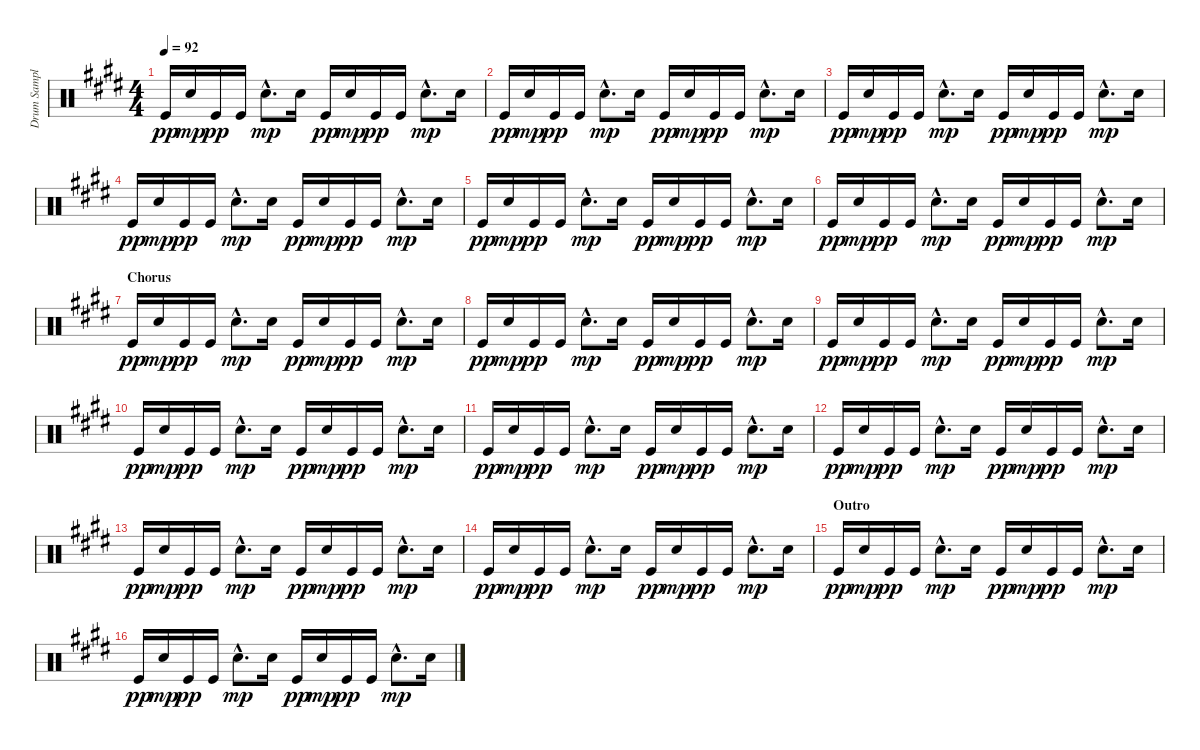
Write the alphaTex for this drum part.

\track ("Drum Sampler" "Drum Sampl") {instrument percussion}
\staff {score}
\articulation defaults
\ts (4 4)
\tempo 92
\clef neutral
\ks e "Kick (hit)".16{dy pp} "Electric Snare (hit)".16{dy mp} "Kick (hit)".16{dy pp} "Kick (hit)".16 "Electric Snare (hit)"{hac}.8{d dy mp} "Electric Snare (hit)".16 "Kick (hit)".16{dy pp} "Electric Snare (hit)".16{dy mp} "Kick (hit)".16{dy pp} "Kick (hit)".16 "Electric Snare (hit)"{hac}.8{d dy mp} "Electric Snare (hit)".16
|
"Kick (hit)".16{dy pp} "Electric Snare (hit)".16{dy mp} "Kick (hit)".16{dy pp} "Kick (hit)".16 "Electric Snare (hit)"{hac}.8{d dy mp} "Electric Snare (hit)".16 "Kick (hit)".16{dy pp} "Electric Snare (hit)".16{dy mp} "Kick (hit)".16{dy pp} "Kick (hit)".16 "Electric Snare (hit)"{hac}.8{d dy mp} "Electric Snare (hit)".16 |
"Kick (hit)".16{dy pp} "Electric Snare (hit)".16{dy mp} "Kick (hit)".16{dy pp} "Kick (hit)".16 "Electric Snare (hit)"{hac}.8{d dy mp} "Electric Snare (hit)".16 "Kick (hit)".16{dy pp} "Electric Snare (hit)".16{dy mp} "Kick (hit)".16{dy pp} "Kick (hit)".16 "Electric Snare (hit)"{hac}.8{d dy mp} "Electric Snare (hit)".16 |
"Kick (hit)".16{dy pp} "Electric Snare (hit)".16{dy mp} "Kick (hit)".16{dy pp} "Kick (hit)".16 "Electric Snare (hit)"{hac}.8{d dy mp} "Electric Snare (hit)".16 "Kick (hit)".16{dy pp} "Electric Snare (hit)".16{dy mp} "Kick (hit)".16{dy pp} "Kick (hit)".16 "Electric Snare (hit)"{hac}.8{d dy mp} "Electric Snare (hit)".16 |
"Kick (hit)".16{dy pp} "Electric Snare (hit)".16{dy mp} "Kick (hit)".16{dy pp} "Kick (hit)".16 "Electric Snare (hit)"{hac}.8{d dy mp} "Electric Snare (hit)".16 "Kick (hit)".16{dy pp} "Electric Snare (hit)".16{dy mp} "Kick (hit)".16{dy pp} "Kick (hit)".16 "Electric Snare (hit)"{hac}.8{d dy mp} "Electric Snare (hit)".16 |
"Kick (hit)".16{dy pp} "Electric Snare (hit)".16{dy mp} "Kick (hit)".16{dy pp} "Kick (hit)".16 "Electric Snare (hit)"{hac}.8{d dy mp} "Electric Snare (hit)".16 "Kick (hit)".16{dy pp} "Electric Snare (hit)".16{dy mp} "Kick (hit)".16{dy pp} "Kick (hit)".16 "Electric Snare (hit)"{hac}.8{d dy mp} "Electric Snare (hit)".16 |
\section ("" "Chorus")
"Kick (hit)".16{dy pp} "Electric Snare (hit)".16{dy mp} "Kick (hit)".16{dy pp} "Kick (hit)".16 "Electric Snare (hit)"{hac}.8{d dy mp} "Electric Snare (hit)".16 "Kick (hit)".16{dy pp} "Electric Snare (hit)".16{dy mp} "Kick (hit)".16{dy pp} "Kick (hit)".16 "Electric Snare (hit)"{hac}.8{d dy mp} "Electric Snare (hit)".16 |
"Kick (hit)".16{dy pp} "Electric Snare (hit)".16{dy mp} "Kick (hit)".16{dy pp} "Kick (hit)".16 "Electric Snare (hit)"{hac}.8{d dy mp} "Electric Snare (hit)".16 "Kick (hit)".16{dy pp} "Electric Snare (hit)".16{dy mp} "Kick (hit)".16{dy pp} "Kick (hit)".16 "Electric Snare (hit)"{hac}.8{d dy mp} "Electric Snare (hit)".16 |
"Kick (hit)".16{dy pp} "Electric Snare (hit)".16{dy mp} "Kick (hit)".16{dy pp} "Kick (hit)".16 "Electric Snare (hit)"{hac}.8{d dy mp} "Electric Snare (hit)".16 "Kick (hit)".16{dy pp} "Electric Snare (hit)".16{dy mp} "Kick (hit)".16{dy pp} "Kick (hit)".16 "Electric Snare (hit)"{hac}.8{d dy mp} "Electric Snare (hit)".16 |
"Kick (hit)".16{dy pp} "Electric Snare (hit)".16{dy mp} "Kick (hit)".16{dy pp} "Kick (hit)".16 "Electric Snare (hit)"{hac}.8{d dy mp} "Electric Snare (hit)".16 "Kick (hit)".16{dy pp} "Electric Snare (hit)".16{dy mp} "Kick (hit)".16{dy pp} "Kick (hit)".16 "Electric Snare (hit)"{hac}.8{d dy mp} "Electric Snare (hit)".16 |
"Kick (hit)".16{dy pp} "Electric Snare (hit)".16{dy mp} "Kick (hit)".16{dy pp} "Kick (hit)".16 "Electric Snare (hit)"{hac}.8{d dy mp} "Electric Snare (hit)".16 "Kick (hit)".16{dy pp} "Electric Snare (hit)".16{dy mp} "Kick (hit)".16{dy pp} "Kick (hit)".16 "Electric Snare (hit)"{hac}.8{d dy mp} "Electric Snare (hit)".16 |
"Kick (hit)".16{dy pp} "Electric Snare (hit)".16{dy mp} "Kick (hit)".16{dy pp} "Kick (hit)".16 "Electric Snare (hit)"{hac}.8{d dy mp} "Electric Snare (hit)".16 "Kick (hit)".16{dy pp} "Electric Snare (hit)".16{dy mp} "Kick (hit)".16{dy pp} "Kick (hit)".16 "Electric Snare (hit)"{hac}.8{d dy mp} "Electric Snare (hit)".16 |
"Kick (hit)".16{dy pp} "Electric Snare (hit)".16{dy mp} "Kick (hit)".16{dy pp} "Kick (hit)".16 "Electric Snare (hit)"{hac}.8{d dy mp} "Electric Snare (hit)".16 "Kick (hit)".16{dy pp} "Electric Snare (hit)".16{dy mp} "Kick (hit)".16{dy pp} "Kick (hit)".16 "Electric Snare (hit)"{hac}.8{d dy mp} "Electric Snare (hit)".16 |
"Kick (hit)".16{dy pp} "Electric Snare (hit)".16{dy mp} "Kick (hit)".16{dy pp} "Kick (hit)".16 "Electric Snare (hit)"{hac}.8{d dy mp} "Electric Snare (hit)".16 "Kick (hit)".16{dy pp} "Electric Snare (hit)".16{dy mp} "Kick (hit)".16{dy pp} "Kick (hit)".16 "Electric Snare (hit)"{hac}.8{d dy mp} "Electric Snare (hit)".16 |
\section ("" "Outro")
"Kick (hit)".16{dy pp} "Electric Snare (hit)".16{dy mp} "Kick (hit)".16{dy pp} "Kick (hit)".16 "Electric Snare (hit)"{hac}.8{d dy mp} "Electric Snare (hit)".16 "Kick (hit)".16{dy pp} "Electric Snare (hit)".16{dy mp} "Kick (hit)".16{dy pp} "Kick (hit)".16 "Electric Snare (hit)"{hac}.8{d dy mp} "Electric Snare (hit)".16 |
"Kick (hit)".16{dy pp} "Electric Snare (hit)".16{dy mp} "Kick (hit)".16{dy pp} "Kick (hit)".16 "Electric Snare (hit)"{hac}.8{d dy mp} "Electric Snare (hit)".16 "Kick (hit)".16{dy pp} "Electric Snare (hit)".16{dy mp} "Kick (hit)".16{dy pp} "Kick (hit)".16 "Electric Snare (hit)"{hac}.8{d dy mp} "Electric Snare (hit)".16
